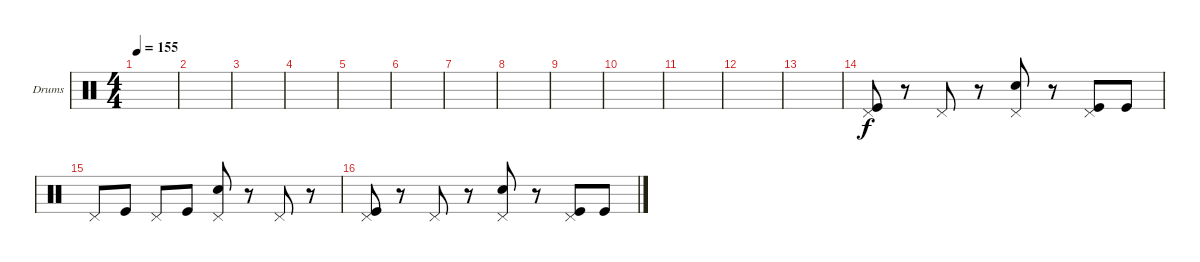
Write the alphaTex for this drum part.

\defaultSystemsLayout 4
\bracketExtendMode groupsimilarinstruments
\firstSystemTrackNameOrientation horizontal
\otherSystemsTrackNameOrientation horizontal
\track ("Drumkit" "Drums") {instrument percussion}
\staff {score}
\articulation defaults
\ts (4 4)
\tempo 155
\clef neutral
\ks c
|
|
|
|
\scale
0.321839 |
\scale
0.333333 |
\scale
0.333333 |
\scale
0.333333 |
\scale
0.333333 |
\scale
0.333333 |
\scale
0.333333 |
\scale
0.333333 |
\scale
0.333333 |
\scale
0.333333 ("Kick (hit)" "Pedal Hi-Hat (hit)").8 r.8 "Pedal Hi-Hat (hit)".8 r.8 ("Pedal Hi-Hat (hit)" "Snare (hit) 2").8 r.8 ("Kick (hit)" "Pedal Hi-Hat (hit)").8 "Kick (hit)".8 |
\scale
0.333333 "Pedal Hi-Hat (hit)".8 "Kick (hit)".8 "Pedal Hi-Hat (hit)".8 "Kick (hit)".8 ("Pedal Hi-Hat (hit)" "Snare (hit) 2").8 r.8 "Pedal Hi-Hat (hit)".8 r.8 |
\scale
0.333333 ("Kick (hit)" "Pedal Hi-Hat (hit)").8 r.8 "Pedal Hi-Hat (hit)".8 r.8 ("Pedal Hi-Hat (hit)" "Snare (hit) 2").8 r.8 ("Kick (hit)" "Pedal Hi-Hat (hit)").8 "Kick (hit)".8
